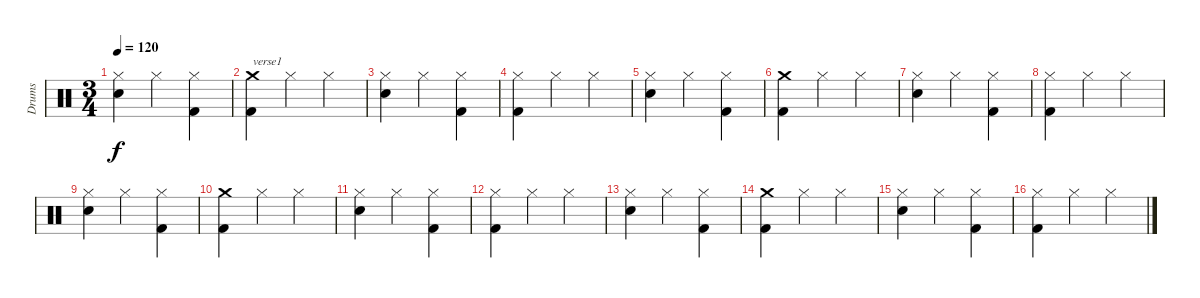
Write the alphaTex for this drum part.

\track ("Drums" "Drums") {instrument percussion}
\staff {score}
\articulation defaults
\ts (3 4)
\tempo 120
\clef neutral
\ks c
("Hi-Hat (closed)" "Electric Snare (hit)").4{dy f} "Hi-Hat (closed)".4 ("Hi-Hat (closed)" "Kick (hit) 2").4 |
("Crash medium (hit)" "Kick (hit) 2").4{txt "verse1"} "Hi-Hat (closed)".4 "Hi-Hat (closed)".4 |
("Hi-Hat (closed)" "Electric Snare (hit)").4 "Hi-Hat (closed)".4 ("Hi-Hat (closed)" "Kick (hit) 2").4 |
("Hi-Hat (closed)" "Kick (hit) 2").4 "Hi-Hat (closed)".4 "Hi-Hat (closed)".4 |
("Hi-Hat (closed)" "Electric Snare (hit)").4 "Hi-Hat (closed)".4 ("Hi-Hat (closed)" "Kick (hit) 2").4 |
("Crash medium (hit)" "Kick (hit) 2").4 "Hi-Hat (closed)".4 "Hi-Hat (closed)".4 |
("Hi-Hat (closed)" "Electric Snare (hit)").4 "Hi-Hat (closed)".4 ("Hi-Hat (closed)" "Kick (hit) 2").4 |
("Hi-Hat (closed)" "Kick (hit) 2").4 "Hi-Hat (closed)".4 "Hi-Hat (closed)".4 |
("Hi-Hat (closed)" "Electric Snare (hit)").4 "Hi-Hat (closed)".4 ("Hi-Hat (closed)" "Kick (hit) 2").4 |
("Crash medium (hit)" "Kick (hit) 2").4 "Hi-Hat (closed)".4 "Hi-Hat (closed)".4 |
("Hi-Hat (closed)" "Electric Snare (hit)").4 "Hi-Hat (closed)".4 ("Hi-Hat (closed)" "Kick (hit) 2").4 |
("Hi-Hat (closed)" "Kick (hit) 2").4 "Hi-Hat (closed)".4 "Hi-Hat (closed)".4 |
("Hi-Hat (closed)" "Electric Snare (hit)").4 "Hi-Hat (closed)".4 ("Hi-Hat (closed)" "Kick (hit) 2").4 |
("Crash medium (hit)" "Kick (hit) 2").4 "Hi-Hat (closed)".4 "Hi-Hat (closed)".4 |
("Hi-Hat (closed)" "Electric Snare (hit)").4 "Hi-Hat (closed)".4 ("Hi-Hat (closed)" "Kick (hit) 2").4 |
("Hi-Hat (closed)" "Kick (hit) 2").4 "Hi-Hat (closed)".4 "Hi-Hat (closed)".4
